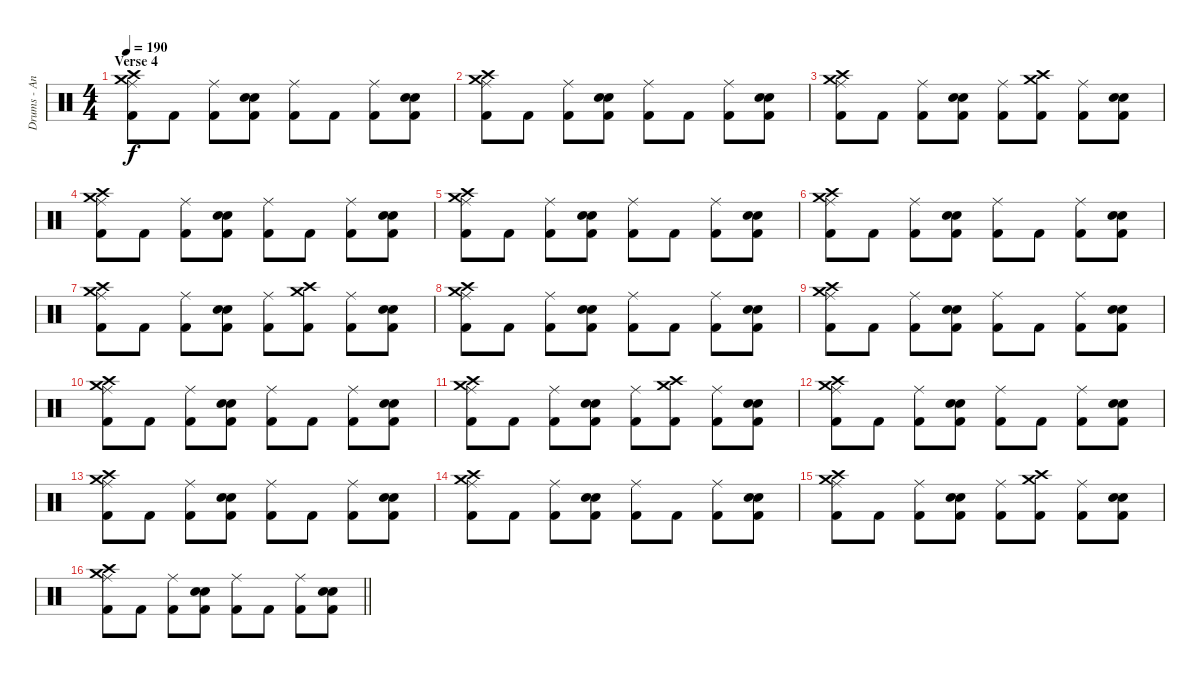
\track ("Drums - Anders Johansson" "Drums - An") {instrument percussion}
\staff {score}
\articulation defaults
\ts (4 4)
\section ("" "Verse 4")
\tempo 190
\clef neutral
\ks c
("Ride (middle)" "Kick (hit) 2" "Crash medium (hit)" "Crash high (hit)").8{dy f} "Kick (hit) 2".8 ("Ride (middle)" "Kick (hit) 2").8 ("Electric Snare (hit)" "Snare (hit) 2" "Kick (hit) 2").8 ("Ride (middle)" "Kick (hit) 2").8 "Kick (hit) 2".8 ("Ride (middle)" "Kick (hit) 2").8 ("Electric Snare (hit)" "Snare (hit) 2" "Kick (hit) 2").8 |
("Ride (middle)" "Kick (hit) 2" "Crash medium (hit)" "Crash high (hit)").8 "Kick (hit) 2".8 ("Ride (middle)" "Kick (hit) 2").8 ("Electric Snare (hit)" "Snare (hit) 2" "Kick (hit) 2").8 ("Ride (middle)" "Kick (hit) 2").8 "Kick (hit) 2".8 ("Ride (middle)" "Kick (hit) 2").8 ("Electric Snare (hit)" "Snare (hit) 2" "Kick (hit) 2").8 |
("Ride (middle)" "Kick (hit) 2" "Crash medium (hit)" "Crash high (hit)").8 "Kick (hit) 2".8 ("Ride (middle)" "Kick (hit) 2").8 ("Electric Snare (hit)" "Snare (hit) 2" "Kick (hit) 2").8 ("Ride (middle)" "Kick (hit) 2").8 ("Kick (hit) 2" "Crash medium (hit)" "Crash high (hit)").8 ("Ride (middle)" "Kick (hit) 2").8 ("Electric Snare (hit)" "Snare (hit) 2" "Kick (hit) 2").8 |
("Ride (middle)" "Kick (hit) 2" "Crash medium (hit)" "Crash high (hit)").8 "Kick (hit) 2".8 ("Ride (middle)" "Kick (hit) 2").8 ("Electric Snare (hit)" "Snare (hit) 2" "Kick (hit) 2").8 ("Ride (middle)" "Kick (hit) 2").8 "Kick (hit) 2".8 ("Ride (middle)" "Kick (hit) 2").8 ("Electric Snare (hit)" "Snare (hit) 2" "Kick (hit) 2").8 |
("Ride (middle)" "Kick (hit) 2" "Crash medium (hit)" "Crash high (hit)").8 "Kick (hit) 2".8 ("Ride (middle)" "Kick (hit) 2").8 ("Electric Snare (hit)" "Snare (hit) 2" "Kick (hit) 2").8 ("Ride (middle)" "Kick (hit) 2").8 "Kick (hit) 2".8 ("Ride (middle)" "Kick (hit) 2").8 ("Electric Snare (hit)" "Snare (hit) 2" "Kick (hit) 2").8 |
("Ride (middle)" "Kick (hit) 2" "Crash medium (hit)" "Crash high (hit)").8 "Kick (hit) 2".8 ("Ride (middle)" "Kick (hit) 2").8 ("Electric Snare (hit)" "Snare (hit) 2" "Kick (hit) 2").8 ("Ride (middle)" "Kick (hit) 2").8 "Kick (hit) 2".8 ("Ride (middle)" "Kick (hit) 2").8 ("Electric Snare (hit)" "Snare (hit) 2" "Kick (hit) 2").8 |
("Ride (middle)" "Kick (hit) 2" "Crash medium (hit)" "Crash high (hit)").8 "Kick (hit) 2".8 ("Ride (middle)" "Kick (hit) 2").8 ("Electric Snare (hit)" "Snare (hit) 2" "Kick (hit) 2").8 ("Ride (middle)" "Kick (hit) 2").8 ("Kick (hit) 2" "Crash medium (hit)" "Crash high (hit)").8 ("Ride (middle)" "Kick (hit) 2").8 ("Electric Snare (hit)" "Snare (hit) 2" "Kick (hit) 2").8 |
("Ride (middle)" "Kick (hit) 2" "Crash medium (hit)" "Crash high (hit)").8 "Kick (hit) 2".8 ("Ride (middle)" "Kick (hit) 2").8 ("Electric Snare (hit)" "Snare (hit) 2" "Kick (hit) 2").8 ("Ride (middle)" "Kick (hit) 2").8 "Kick (hit) 2".8 ("Ride (middle)" "Kick (hit) 2").8 ("Electric Snare (hit)" "Snare (hit) 2" "Kick (hit) 2").8 |
("Ride (middle)" "Kick (hit) 2" "Crash medium (hit)" "Crash high (hit)").8 "Kick (hit) 2".8 ("Ride (middle)" "Kick (hit) 2").8 ("Electric Snare (hit)" "Snare (hit) 2" "Kick (hit) 2").8 ("Ride (middle)" "Kick (hit) 2").8 "Kick (hit) 2".8 ("Ride (middle)" "Kick (hit) 2").8 ("Electric Snare (hit)" "Snare (hit) 2" "Kick (hit) 2").8 |
("Ride (middle)" "Kick (hit) 2" "Crash medium (hit)" "Crash high (hit)").8 "Kick (hit) 2".8 ("Ride (middle)" "Kick (hit) 2").8 ("Electric Snare (hit)" "Snare (hit) 2" "Kick (hit) 2").8 ("Ride (middle)" "Kick (hit) 2").8 "Kick (hit) 2".8 ("Ride (middle)" "Kick (hit) 2").8 ("Electric Snare (hit)" "Snare (hit) 2" "Kick (hit) 2").8 |
("Ride (middle)" "Kick (hit) 2" "Crash medium (hit)" "Crash high (hit)").8 "Kick (hit) 2".8 ("Ride (middle)" "Kick (hit) 2").8 ("Electric Snare (hit)" "Snare (hit) 2" "Kick (hit) 2").8 ("Ride (middle)" "Kick (hit) 2").8 ("Kick (hit) 2" "Crash medium (hit)" "Crash high (hit)").8 ("Ride (middle)" "Kick (hit) 2").8 ("Electric Snare (hit)" "Snare (hit) 2" "Kick (hit) 2").8 |
("Ride (middle)" "Kick (hit) 2" "Crash medium (hit)" "Crash high (hit)").8 "Kick (hit) 2".8 ("Ride (middle)" "Kick (hit) 2").8 ("Electric Snare (hit)" "Snare (hit) 2" "Kick (hit) 2").8 ("Ride (middle)" "Kick (hit) 2").8 "Kick (hit) 2".8 ("Ride (middle)" "Kick (hit) 2").8 ("Electric Snare (hit)" "Snare (hit) 2" "Kick (hit) 2").8 |
("Ride (middle)" "Kick (hit) 2" "Crash medium (hit)" "Crash high (hit)").8 "Kick (hit) 2".8 ("Ride (middle)" "Kick (hit) 2").8 ("Electric Snare (hit)" "Snare (hit) 2" "Kick (hit) 2").8 ("Ride (middle)" "Kick (hit) 2").8 "Kick (hit) 2".8 ("Ride (middle)" "Kick (hit) 2").8 ("Electric Snare (hit)" "Snare (hit) 2" "Kick (hit) 2").8 |
("Ride (middle)" "Kick (hit) 2" "Crash medium (hit)" "Crash high (hit)").8 "Kick (hit) 2".8 ("Ride (middle)" "Kick (hit) 2").8 ("Electric Snare (hit)" "Snare (hit) 2" "Kick (hit) 2").8 ("Ride (middle)" "Kick (hit) 2").8 "Kick (hit) 2".8 ("Ride (middle)" "Kick (hit) 2").8 ("Electric Snare (hit)" "Snare (hit) 2" "Kick (hit) 2").8 |
("Ride (middle)" "Kick (hit) 2" "Crash medium (hit)" "Crash high (hit)").8 "Kick (hit) 2".8 ("Ride (middle)" "Kick (hit) 2").8 ("Electric Snare (hit)" "Snare (hit) 2" "Kick (hit) 2").8 ("Ride (middle)" "Kick (hit) 2").8 ("Kick (hit) 2" "Crash medium (hit)" "Crash high (hit)").8 ("Ride (middle)" "Kick (hit) 2").8 ("Electric Snare (hit)" "Snare (hit) 2" "Kick (hit) 2").8 |
\barLineRight lightlight
("Ride (middle)" "Kick (hit) 2" "Crash medium (hit)" "Crash high (hit)").8 "Kick (hit) 2".8 ("Ride (middle)" "Kick (hit) 2").8 ("Electric Snare (hit)" "Snare (hit) 2" "Kick (hit) 2").8 ("Ride (middle)" "Kick (hit) 2").8 "Kick (hit) 2".8 ("Ride (middle)" "Kick (hit) 2").8 ("Electric Snare (hit)" "Snare (hit) 2" "Kick (hit) 2").8
